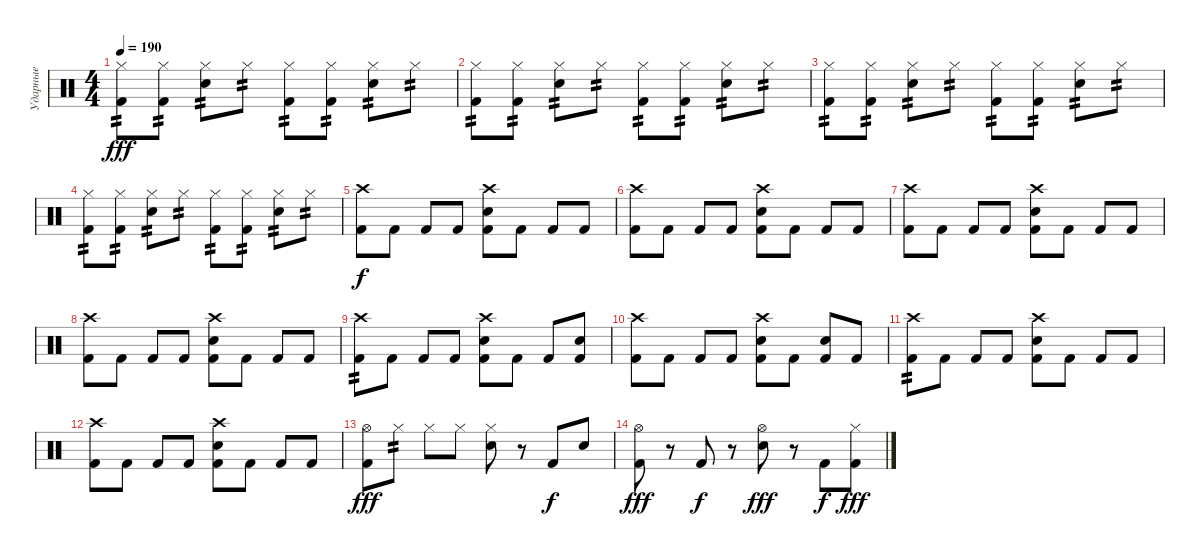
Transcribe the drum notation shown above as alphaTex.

\track ("Ударные" "Ударные") {instrument percussion}
\staff {score}
\articulation defaults
\ts (4 4)
\tempo 190
\clef neutral
\ks c
("Hi-Hat (closed)" "Kick (hit) 2").8{tp 2 dy fff} ("Hi-Hat (closed)" "Kick (hit) 2").8{tp 2} ("Hi-Hat (closed)" "Snare (hit) 2").8{tp 2} "Hi-Hat (closed)".8{tp 2} ("Hi-Hat (closed)" "Kick (hit) 2").8{tp 2} ("Hi-Hat (closed)" "Kick (hit) 2").8{tp 2} ("Hi-Hat (closed)" "Snare (hit) 2").8{tp 2} "Hi-Hat (closed)".8{tp 2} |
("Hi-Hat (closed)" "Kick (hit) 2").8{tp 2} ("Hi-Hat (closed)" "Kick (hit) 2").8{tp 2} ("Hi-Hat (closed)" "Snare (hit) 2").8{tp 2} "Hi-Hat (closed)".8{tp 2} ("Hi-Hat (closed)" "Kick (hit) 2").8{tp 2} ("Hi-Hat (closed)" "Kick (hit) 2").8{tp 2} ("Hi-Hat (closed)" "Snare (hit) 2").8{tp 2} "Hi-Hat (closed)".8{tp 2} |
("Hi-Hat (closed)" "Kick (hit) 2").8{tp 2} ("Hi-Hat (closed)" "Kick (hit) 2").8{tp 2} ("Hi-Hat (closed)" "Snare (hit) 2").8{tp 2} "Hi-Hat (closed)".8{tp 2} ("Hi-Hat (closed)" "Kick (hit) 2").8{tp 2} ("Hi-Hat (closed)" "Kick (hit) 2").8{tp 2} ("Hi-Hat (closed)" "Snare (hit) 2").8{tp 2} "Hi-Hat (closed)".8{tp 2} |
("Hi-Hat (closed)" "Kick (hit) 2").8{tp 2} ("Hi-Hat (closed)" "Kick (hit) 2").8{tp 2} ("Hi-Hat (closed)" "Snare (hit) 2").8{tp 2} "Hi-Hat (closed)".8{tp 2} ("Hi-Hat (closed)" "Kick (hit) 2").8{tp 2} ("Hi-Hat (closed)" "Kick (hit) 2").8{tp 2} ("Hi-Hat (closed)" "Snare (hit) 2").8{tp 2} "Hi-Hat (closed)".8{tp 2} |
("Crash high (hit)" "Kick (hit) 2").8{dy f} "Kick (hit) 2".8 "Kick (hit) 2".8 "Kick (hit) 2".8 ("Crash high (hit)" "Snare (hit) 2" "Kick (hit) 2").8 "Kick (hit) 2".8 "Kick (hit) 2".8 "Kick (hit) 2".8 |
("Crash high (hit)" "Kick (hit) 2").8 "Kick (hit) 2".8 "Kick (hit) 2".8 "Kick (hit) 2".8 ("Crash high (hit)" "Snare (hit) 2" "Kick (hit) 2").8 "Kick (hit) 2".8 "Kick (hit) 2".8 "Kick (hit) 2".8 |
("Crash high (hit)" "Kick (hit) 2").8 "Kick (hit) 2".8 "Kick (hit) 2".8 "Kick (hit) 2".8 ("Crash high (hit)" "Snare (hit) 2" "Kick (hit) 2").8 "Kick (hit) 2".8 "Kick (hit) 2".8 "Kick (hit) 2".8 |
("Crash high (hit)" "Kick (hit) 2").8 "Kick (hit) 2".8 "Kick (hit) 2".8 "Kick (hit) 2".8 ("Crash high (hit)" "Snare (hit) 2" "Kick (hit) 2").8 "Kick (hit) 2".8 "Kick (hit) 2".8 "Kick (hit) 2".8 |
("Crash high (hit)" "Kick (hit) 2").8{tp 2} "Kick (hit) 2".8 "Kick (hit) 2".8 "Kick (hit) 2".8 ("Crash high (hit)" "Snare (hit) 2" "Kick (hit) 2").8 "Kick (hit) 2".8 "Kick (hit) 2".8 ("Snare (hit) 2" "Kick (hit) 2").8 |
("Crash high (hit)" "Kick (hit) 2").8 "Kick (hit) 2".8 "Kick (hit) 2".8 "Kick (hit) 2".8 ("Crash high (hit)" "Snare (hit) 2" "Kick (hit) 2").8 "Kick (hit) 2".8 ("Snare (hit) 2" "Kick (hit) 2").8 "Kick (hit) 2".8 |
("Crash high (hit)" "Kick (hit) 2").8{tp 2} "Kick (hit) 2".8 "Kick (hit) 2".8 "Kick (hit) 2".8 ("Crash high (hit)" "Snare (hit) 2" "Kick (hit) 2").8 "Kick (hit) 2".8 "Kick (hit) 2".8 "Kick (hit) 2".8 |
("Crash high (hit)" "Kick (hit) 2").8 "Kick (hit) 2".8 "Kick (hit) 2".8 "Kick (hit) 2".8 ("Crash high (hit)" "Snare (hit) 2" "Kick (hit) 2").8 "Kick (hit) 2".8 "Kick (hit) 2".8 "Kick (hit) 2".8 |
("Hi-Hat (open)" "Kick (hit) 2").8{dy fff} "Hi-Hat (closed)".8{tp 2} "Hi-Hat (closed)".8 "Hi-Hat (closed)".8 ("Hi-Hat (closed)" "Snare (hit) 2").8 r.8 "Kick (hit) 2".8{dy f} "Snare (hit) 2".8 |
("Hi-Hat (open)" "Kick (hit) 2").8{dy fff} r.8 "Kick (hit) 2".8{dy f} r.8 ("Hi-Hat (open)" "Snare (hit) 2").8{dy fff} r.8 "Kick (hit) 2".8{dy f} ("Hi-Hat (closed)" "Kick (hit) 2").8{dy fff}
